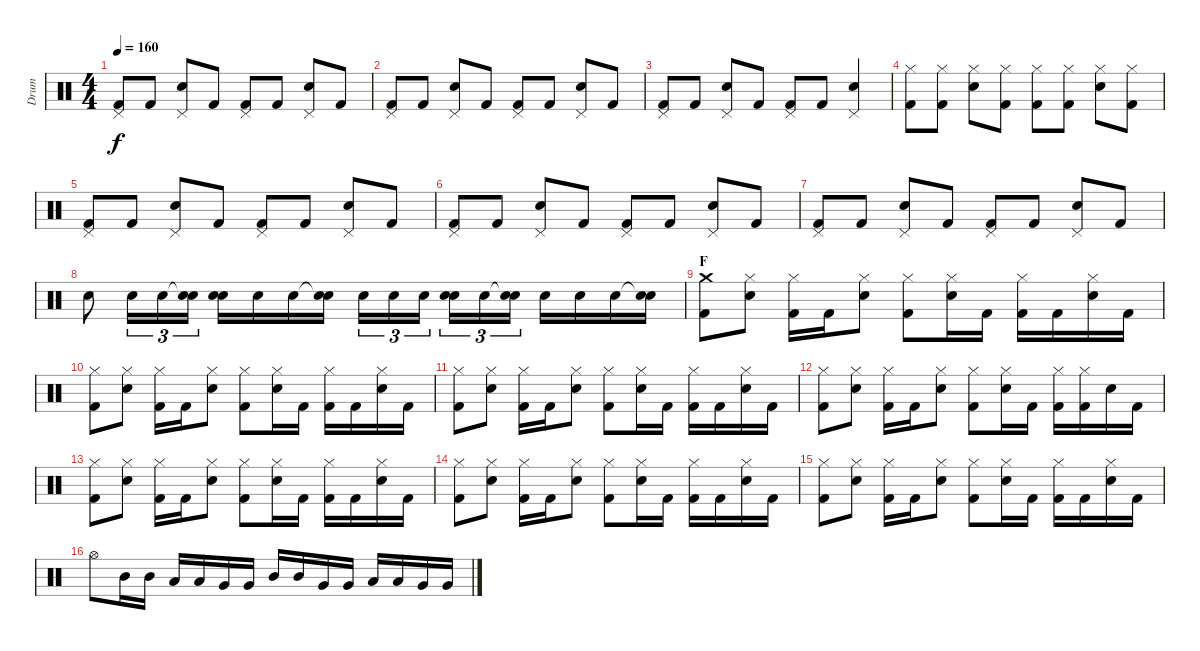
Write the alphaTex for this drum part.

\track ("Drum" "Drum") {instrument percussion}
\staff {score}
\articulation defaults
\ts (4 4)
\tempo 160
\clef neutral
\ks c
("Pedal Hi-Hat (hit)" "Kick (hit) 2").8{dy f} "Kick (hit) 2".8 ("Pedal Hi-Hat (hit)" "Snare (hit) 2").8 "Kick (hit) 2".8 ("Pedal Hi-Hat (hit)" "Kick (hit) 2").8 "Kick (hit) 2".8 ("Pedal Hi-Hat (hit)" "Snare (hit) 2").8 "Kick (hit) 2".8 |
("Pedal Hi-Hat (hit)" "Kick (hit) 2").8 "Kick (hit) 2".8 ("Pedal Hi-Hat (hit)" "Snare (hit) 2").8 "Kick (hit) 2".8 ("Pedal Hi-Hat (hit)" "Kick (hit) 2").8 "Kick (hit) 2".8 ("Pedal Hi-Hat (hit)" "Snare (hit) 2").8 "Kick (hit) 2".8 |
("Pedal Hi-Hat (hit)" "Kick (hit) 2").8 "Kick (hit) 2".8 ("Pedal Hi-Hat (hit)" "Snare (hit) 2").8 "Kick (hit) 2".8 ("Pedal Hi-Hat (hit)" "Kick (hit) 2").8 "Kick (hit) 2".8 ("Pedal Hi-Hat (hit)" "Snare (hit) 2").4 |
("Hi-Hat (closed)" "Kick (hit) 2").8 ("Hi-Hat (closed)" "Kick (hit) 2").8 ("Hi-Hat (closed)" "Snare (hit) 2").8 ("Hi-Hat (closed)" "Kick (hit) 2").8 ("Hi-Hat (closed)" "Kick (hit) 2").8 ("Hi-Hat (closed)" "Kick (hit) 2").8 ("Hi-Hat (closed)" "Snare (hit) 2").8 ("Hi-Hat (closed)" "Kick (hit) 2").8 |
("Pedal Hi-Hat (hit)" "Kick (hit) 2").8 "Kick (hit) 2".8 ("Pedal Hi-Hat (hit)" "Snare (hit) 2").8 "Kick (hit) 2".8 ("Pedal Hi-Hat (hit)" "Kick (hit) 2").8 "Kick (hit) 2".8 ("Pedal Hi-Hat (hit)" "Snare (hit) 2").8 "Kick (hit) 2".8 |
("Pedal Hi-Hat (hit)" "Kick (hit) 2").8 "Kick (hit) 2".8 ("Pedal Hi-Hat (hit)" "Snare (hit) 2").8 "Kick (hit) 2".8 ("Pedal Hi-Hat (hit)" "Kick (hit) 2").8 "Kick (hit) 2".8 ("Pedal Hi-Hat (hit)" "Snare (hit) 2").8 "Kick (hit) 2".8 |
("Pedal Hi-Hat (hit)" "Kick (hit) 2").8 "Kick (hit) 2".8 ("Pedal Hi-Hat (hit)" "Snare (hit) 2").8 "Kick (hit) 2".8 ("Pedal Hi-Hat (hit)" "Kick (hit) 2").8 "Kick (hit) 2".8 ("Pedal Hi-Hat (hit)" "Snare (hit) 2").8 "Kick (hit) 2".8 |
"Electric Snare (hit)".8 "Snare (hit) 2".16{tu (3 2)} "Snare (hit) 2".16{tu (3 2)} ("Electric Snare (hit)"{t} "Snare (hit) 2").16{tu (3 2)} ("Electric Snare (hit)" "Snare (hit) 2").16 "Snare (hit) 2".16 "Snare (hit) 2".16 ("Snare (hit)"{t} "Snare (hit) 2").16 "Snare (hit) 2".16{tu (3 2)} "Snare (hit) 2".16{tu (3 2)} "Snare (hit) 2".16{tu (3 2)} ("Electric Snare (hit)" "Snare (hit) 2").16{tu (3 2)} "Snare (hit) 2".16{tu (3 2)} ("Snare (hit)"{t} "Snare (hit) 2").16{tu (3 2)} "Electric Snare (hit)".16 "Snare (hit) 2".16 "Snare (hit) 2".16 ("Snare (hit)"{t} "Snare (hit) 2").16 |
\section ("" "F")
("Crash medium (hit)" "Kick (hit) 2").8 ("Hi-Hat (closed)" "Snare (hit) 2").8 ("Hi-Hat (closed)" "Kick (hit) 2").16 "Kick (hit) 2".16 ("Hi-Hat (closed)" "Snare (hit) 2").8 ("Hi-Hat (closed)" "Kick (hit) 2").8 ("Hi-Hat (closed)" "Snare (hit) 2").16 "Kick (hit) 2".16 ("Hi-Hat (closed)" "Kick (hit) 2").16 "Kick (hit) 2".16 ("Hi-Hat (closed)" "Snare (hit) 2").16 "Kick (hit) 2".16 |
("Hi-Hat (closed)" "Kick (hit) 2").8 ("Hi-Hat (closed)" "Snare (hit) 2").8 ("Hi-Hat (closed)" "Kick (hit) 2").16 "Kick (hit) 2".16 ("Hi-Hat (closed)" "Snare (hit) 2").8 ("Hi-Hat (closed)" "Kick (hit) 2").8 ("Hi-Hat (closed)" "Snare (hit) 2").16 "Kick (hit) 2".16 ("Hi-Hat (closed)" "Kick (hit) 2").16 "Kick (hit) 2".16 ("Hi-Hat (closed)" "Snare (hit) 2").16 "Kick (hit) 2".16 |
("Hi-Hat (closed)" "Kick (hit) 2").8 ("Hi-Hat (closed)" "Snare (hit) 2").8 ("Hi-Hat (closed)" "Kick (hit) 2").16 "Kick (hit) 2".16 ("Hi-Hat (closed)" "Snare (hit) 2").8 ("Hi-Hat (closed)" "Kick (hit) 2").8 ("Hi-Hat (closed)" "Snare (hit) 2").16 "Kick (hit) 2".16 ("Hi-Hat (closed)" "Kick (hit) 2").16 "Kick (hit) 2".16 ("Hi-Hat (closed)" "Snare (hit) 2").16 "Kick (hit) 2".16 |
("Hi-Hat (closed)" "Kick (hit) 2").8 ("Hi-Hat (closed)" "Snare (hit) 2").8 ("Hi-Hat (closed)" "Kick (hit) 2").16 "Kick (hit) 2".16 ("Hi-Hat (closed)" "Snare (hit) 2").8 ("Hi-Hat (closed)" "Kick (hit) 2").8 ("Hi-Hat (closed)" "Snare (hit) 2").16 "Kick (hit) 2".16 ("Hi-Hat (closed)" "Kick (hit) 2").16 ("Hi-Hat (closed)" "Kick (hit) 2").16 "Snare (hit) 2".16 "Kick (hit) 2".16 |
("Hi-Hat (closed)" "Kick (hit) 2").8 ("Hi-Hat (closed)" "Snare (hit) 2").8 ("Hi-Hat (closed)" "Kick (hit) 2").16 "Kick (hit) 2".16 ("Hi-Hat (closed)" "Snare (hit) 2").8 ("Hi-Hat (closed)" "Kick (hit) 2").8 ("Hi-Hat (closed)" "Snare (hit) 2").16 "Kick (hit) 2".16 ("Hi-Hat (closed)" "Kick (hit) 2").16 "Kick (hit) 2".16 ("Hi-Hat (closed)" "Snare (hit) 2").16 "Kick (hit) 2".16 |
("Hi-Hat (closed)" "Kick (hit) 2").8 ("Hi-Hat (closed)" "Snare (hit) 2").8 ("Hi-Hat (closed)" "Kick (hit) 2").16 "Kick (hit) 2".16 ("Hi-Hat (closed)" "Snare (hit) 2").8 ("Hi-Hat (closed)" "Kick (hit) 2").8 ("Hi-Hat (closed)" "Snare (hit) 2").16 "Kick (hit) 2".16 ("Hi-Hat (closed)" "Kick (hit) 2").16 "Kick (hit) 2".16 ("Hi-Hat (closed)" "Snare (hit) 2").16 "Kick (hit) 2".16 |
("Hi-Hat (closed)" "Kick (hit) 2").8 ("Hi-Hat (closed)" "Snare (hit) 2").8 ("Hi-Hat (closed)" "Kick (hit) 2").16 "Kick (hit) 2".16 ("Hi-Hat (closed)" "Snare (hit) 2").8 ("Hi-Hat (closed)" "Kick (hit) 2").8 ("Hi-Hat (closed)" "Snare (hit) 2").16 "Kick (hit) 2".16 ("Hi-Hat (closed)" "Kick (hit) 2").16 "Kick (hit) 2".16 ("Hi-Hat (closed)" "Snare (hit) 2").16 "Kick (hit) 2".16 |
"Hi-Hat (open)".8 "Mid Tom (hit)".16 "Mid Tom (hit)".16 "Low Tom (hit)".16 "Low Tom (hit)".16 "Very Low Tom (hit)".16 "Very Low Tom (hit)".16 "Mid Tom (hit)".16 "Mid Tom (hit)".16 "Very Low Tom (hit)".16 "Very Low Tom (hit)".16 "Low Tom (hit)".16 "Low Tom (hit)".16 "Very Low Tom (hit)".16 "Very Low Tom (hit)".16
